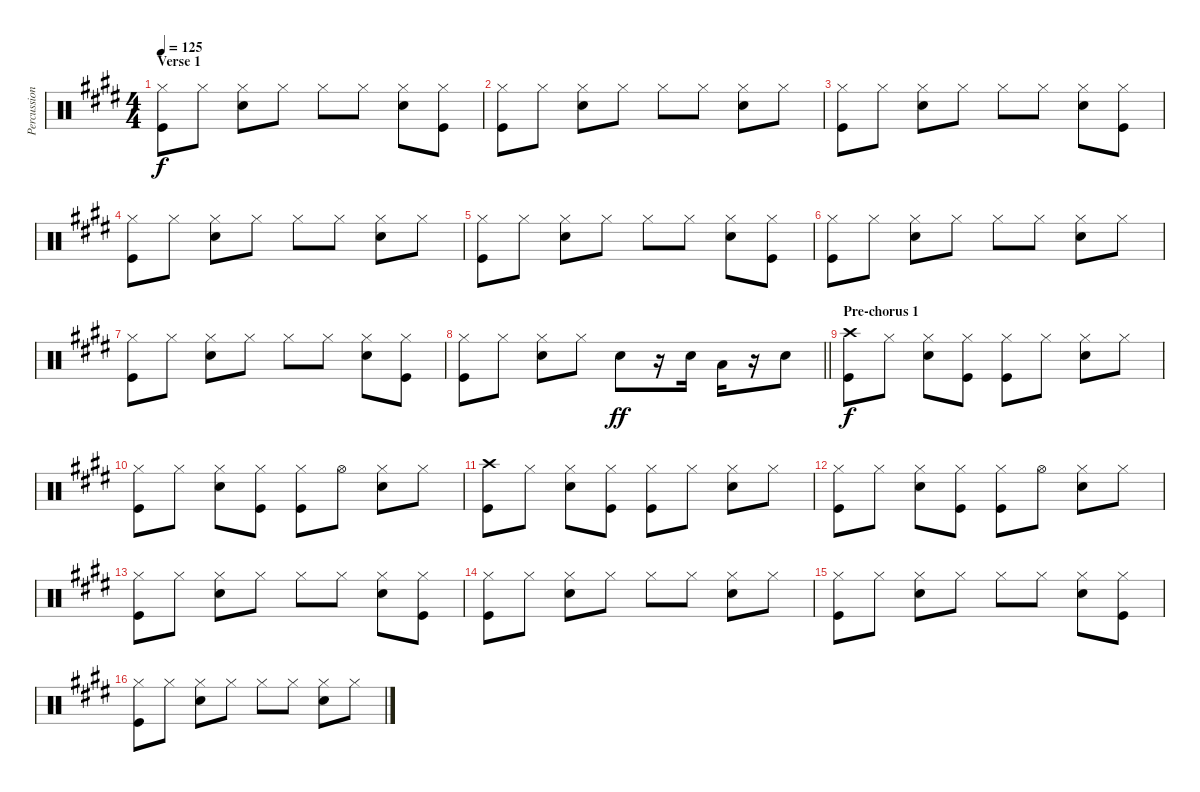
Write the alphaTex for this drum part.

\track ("Percussion" "Percussion") {instrument percussion}
\staff {score}
\articulation defaults
\ts (4 4)
\section ("" "Verse 1")
\tempo 125
\clef neutral
\ks c#minor
("Hi-Hat (closed)" "Kick (hit)").8{dy f} "Hi-Hat (closed)".8 ("Hi-Hat (closed)" "Electric Snare (hit)").8 "Hi-Hat (closed)".8 "Hi-Hat (closed)".8 "Hi-Hat (closed)".8 ("Hi-Hat (closed)" "Electric Snare (hit)").8 ("Hi-Hat (closed)" "Kick (hit)").8 |
("Hi-Hat (closed)" "Kick (hit)").8 "Hi-Hat (closed)".8 ("Hi-Hat (closed)" "Electric Snare (hit)").8 "Hi-Hat (closed)".8 "Hi-Hat (closed)".8 "Hi-Hat (closed)".8 ("Hi-Hat (closed)" "Electric Snare (hit)").8 "Hi-Hat (closed)".8 |
("Hi-Hat (closed)" "Kick (hit)").8 "Hi-Hat (closed)".8 ("Hi-Hat (closed)" "Electric Snare (hit)").8 "Hi-Hat (closed)".8 "Hi-Hat (closed)".8 "Hi-Hat (closed)".8 ("Hi-Hat (closed)" "Electric Snare (hit)").8 ("Hi-Hat (closed)" "Kick (hit)").8 |
("Hi-Hat (closed)" "Kick (hit)").8 "Hi-Hat (closed)".8 ("Hi-Hat (closed)" "Electric Snare (hit)").8 "Hi-Hat (closed)".8 "Hi-Hat (closed)".8 "Hi-Hat (closed)".8 ("Hi-Hat (closed)" "Electric Snare (hit)").8 "Hi-Hat (closed)".8 |
("Hi-Hat (closed)" "Kick (hit)").8 "Hi-Hat (closed)".8 ("Hi-Hat (closed)" "Electric Snare (hit)").8 "Hi-Hat (closed)".8 "Hi-Hat (closed)".8 "Hi-Hat (closed)".8 ("Hi-Hat (closed)" "Electric Snare (hit)").8 ("Hi-Hat (closed)" "Kick (hit)").8 |
("Hi-Hat (closed)" "Kick (hit)").8 "Hi-Hat (closed)".8 ("Hi-Hat (closed)" "Electric Snare (hit)").8 "Hi-Hat (closed)".8 "Hi-Hat (closed)".8 "Hi-Hat (closed)".8 ("Hi-Hat (closed)" "Electric Snare (hit)").8 "Hi-Hat (closed)".8 |
("Hi-Hat (closed)" "Kick (hit)").8 "Hi-Hat (closed)".8 ("Hi-Hat (closed)" "Electric Snare (hit)").8 "Hi-Hat (closed)".8 "Hi-Hat (closed)".8 "Hi-Hat (closed)".8 ("Hi-Hat (closed)" "Electric Snare (hit)").8 ("Hi-Hat (closed)" "Kick (hit)").8 |
\barLineRight lightlight
("Hi-Hat (closed)" "Kick (hit)").8 "Hi-Hat (closed)".8 ("Hi-Hat (closed)" "Electric Snare (hit)").8 "Hi-Hat (closed)".8 "Electric Snare (hit)".8{dy ff} r.16 "Electric Snare (hit)".16 "Low Floor Tom (hit)".16 r.16 "Electric Snare (hit)".8 |
\section ("" "Pre-chorus 1")
("Crash high (hit)" "Kick (hit)").8{dy f} "Hi-Hat (closed)".8 ("Hi-Hat (closed)" "Electric Snare (hit)").8 ("Hi-Hat (closed)" "Kick (hit)").8 ("Hi-Hat (closed)" "Kick (hit)").8 "Hi-Hat (closed)".8 ("Hi-Hat (closed)" "Electric Snare (hit)").8 "Hi-Hat (closed)".8 |
("Hi-Hat (closed)" "Kick (hit)").8 "Hi-Hat (closed)".8 ("Hi-Hat (closed)" "Electric Snare (hit)").8 ("Hi-Hat (closed)" "Kick (hit)").8 ("Hi-Hat (closed)" "Kick (hit)").8 "Hi-Hat (open)".8 ("Hi-Hat (closed)" "Electric Snare (hit)").8 "Hi-Hat (closed)".8 |
("Crash high (hit)" "Kick (hit)").8 "Hi-Hat (closed)".8 ("Hi-Hat (closed)" "Electric Snare (hit)").8 ("Hi-Hat (closed)" "Kick (hit)").8 ("Hi-Hat (closed)" "Kick (hit)").8 "Hi-Hat (closed)".8 ("Hi-Hat (closed)" "Electric Snare (hit)").8 "Hi-Hat (closed)".8 |
("Hi-Hat (closed)" "Kick (hit)").8 "Hi-Hat (closed)".8 ("Hi-Hat (closed)" "Electric Snare (hit)").8 ("Hi-Hat (closed)" "Kick (hit)").8 ("Hi-Hat (closed)" "Kick (hit)").8 "Hi-Hat (open)".8 ("Hi-Hat (closed)" "Electric Snare (hit)").8 "Hi-Hat (closed)".8 |
("Hi-Hat (closed)" "Kick (hit)").8 "Hi-Hat (closed)".8 ("Hi-Hat (closed)" "Electric Snare (hit)").8 "Hi-Hat (closed)".8 "Hi-Hat (closed)".8 "Hi-Hat (closed)".8 ("Hi-Hat (closed)" "Electric Snare (hit)").8 ("Hi-Hat (closed)" "Kick (hit)").8 |
("Hi-Hat (closed)" "Kick (hit)").8 "Hi-Hat (closed)".8 ("Hi-Hat (closed)" "Electric Snare (hit)").8 "Hi-Hat (closed)".8 "Hi-Hat (closed)".8 "Hi-Hat (closed)".8 ("Hi-Hat (closed)" "Electric Snare (hit)").8 "Hi-Hat (closed)".8 |
("Hi-Hat (closed)" "Kick (hit)").8 "Hi-Hat (closed)".8 ("Hi-Hat (closed)" "Electric Snare (hit)").8 "Hi-Hat (closed)".8 "Hi-Hat (closed)".8 "Hi-Hat (closed)".8 ("Hi-Hat (closed)" "Electric Snare (hit)").8 ("Hi-Hat (closed)" "Kick (hit)").8 |
("Hi-Hat (closed)" "Kick (hit)").8 "Hi-Hat (closed)".8 ("Hi-Hat (closed)" "Electric Snare (hit)").8 "Hi-Hat (closed)".8 "Hi-Hat (closed)".8 "Hi-Hat (closed)".8 ("Hi-Hat (closed)" "Electric Snare (hit)").8 "Hi-Hat (closed)".8
